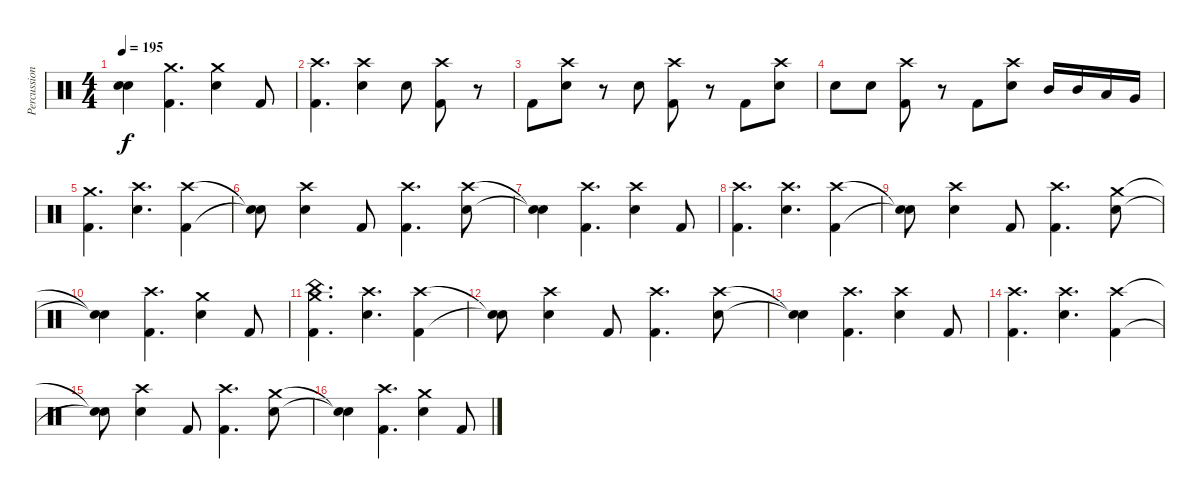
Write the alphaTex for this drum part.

\track ("Percussion" "Percussion") {instrument percussion}
\staff {score}
\articulation defaults
\ts (4 4)
\tempo 195
\clef neutral
\ks c
("Snare (hit)"{t} "Snare (hit)"{t}).4{dy f} ("Crash medium (hit)" "Kick (hit) 2").4{d} ("Crash medium (hit)" "Electric Snare (hit)").4 "Kick (hit) 2".8 |
("Crash high (hit)" "Kick (hit) 2").4{d} ("Crash high (hit)" "Electric Snare (hit)").4 "Electric Snare (hit)".8 ("Crash high (hit)" "Kick (hit) 2").8 r.8 |
"Kick (hit) 2".8 ("Crash high (hit)" "Electric Snare (hit)").8 r.8 "Electric Snare (hit)".8 ("Crash high (hit)" "Kick (hit) 2").8 r.8 "Kick (hit) 2".8 ("Crash high (hit)" "Electric Snare (hit)").8 |
"Electric Snare (hit)".8 "Electric Snare (hit)".8 ("Crash high (hit)" "Kick (hit) 2").8 r.8 "Kick (hit) 2".8 ("Crash high (hit)" "Electric Snare (hit)").8 "Mid Tom (hit)".16 "Mid Tom (hit)".16 "Low Tom (hit)".16 "Very Low Tom (hit)".16 |
("Crash medium (hit)" "Kick (hit) 2").4{d} ("Crash high (hit)" "Electric Snare (hit)").4{d} ("Crash high (hit)" "Kick (hit) 2").4 |
("Snare (hit)"{t} "Snare (hit)"{t}).8 ("Crash high (hit)" "Electric Snare (hit)").4 "Kick (hit) 2".8 ("Crash high (hit)" "Kick (hit) 2").4{d} ("Crash high (hit)" "Electric Snare (hit)").8 |
("Snare (hit)"{t} "Snare (hit)"{t}).4 ("Crash high (hit)" "Kick (hit) 2").4{d} ("Crash high (hit)" "Electric Snare (hit)").4 "Kick (hit) 2".8 |
("Crash high (hit)" "Kick (hit) 2").4{d} ("Crash high (hit)" "Electric Snare (hit)").4{d} ("Crash high (hit)" "Kick (hit) 2").4 |
("Snare (hit)"{t} "Snare (hit)"{t}).8 ("Crash high (hit)" "Electric Snare (hit)").4 "Kick (hit) 2".8 ("Crash high (hit)" "Kick (hit) 2").4{d} ("Crash medium (hit)" "Electric Snare (hit)").8 |
("Snare (hit)"{t} "Snare (hit)"{t}).4 ("Crash high (hit)" "Kick (hit) 2").4{d} ("Crash medium (hit)" "Electric Snare (hit)").4 "Kick (hit) 2".8 |
("China (hit)" "Crash medium (hit)" "Kick (hit) 2").4{d} ("Crash high (hit)" "Electric Snare (hit)").4{d} ("Crash high (hit)" "Kick (hit) 2").4 |
("Snare (hit)"{t} "Snare (hit)"{t}).8 ("Crash high (hit)" "Electric Snare (hit)").4 "Kick (hit) 2".8 ("Crash high (hit)" "Kick (hit) 2").4{d} ("Crash high (hit)" "Electric Snare (hit)").8 |
("Snare (hit)"{t} "Snare (hit)"{t}).4 ("Crash high (hit)" "Kick (hit) 2").4{d} ("Crash high (hit)" "Electric Snare (hit)").4 "Kick (hit) 2".8 |
("Crash high (hit)" "Kick (hit) 2").4{d} ("Crash high (hit)" "Electric Snare (hit)").4{d} ("Crash high (hit)" "Kick (hit) 2").4 |
("Snare (hit)"{t} "Snare (hit)"{t}).8 ("Crash high (hit)" "Electric Snare (hit)").4 "Kick (hit) 2".8 ("Crash high (hit)" "Kick (hit) 2").4{d} ("Crash medium (hit)" "Electric Snare (hit)").8 |
("Snare (hit)"{t} "Snare (hit)"{t}).4 ("Crash high (hit)" "Kick (hit) 2").4{d} ("Crash medium (hit)" "Electric Snare (hit)").4 "Kick (hit) 2".8
